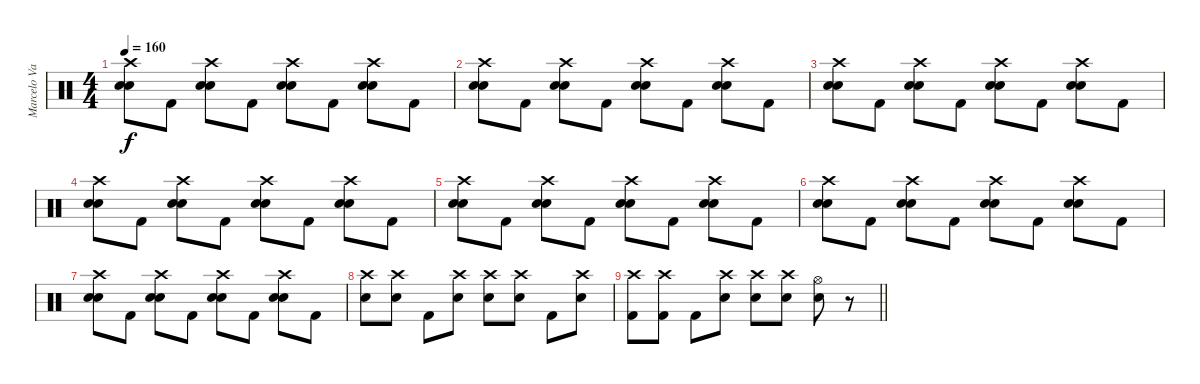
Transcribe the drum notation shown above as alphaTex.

\track ("Marcelo Valenzuela (Bateria)" "Marcelo Va") {instrument percussion}
\staff {score}
\articulation defaults
\ts (4 4)
\tempo 160
\clef neutral
\ks c
("Crash high (hit)" "Snare (hit) 2" "Electric Snare (hit)").8{dy f} "Kick (hit) 2".8 ("Crash high (hit)" "Snare (hit) 2" "Electric Snare (hit)").8 "Kick (hit) 2".8 ("Crash high (hit)" "Snare (hit) 2" "Electric Snare (hit)").8 "Kick (hit) 2".8 ("Crash high (hit)" "Snare (hit) 2" "Electric Snare (hit)").8 "Kick (hit) 2".8 |
("Crash high (hit)" "Snare (hit) 2" "Electric Snare (hit)").8 "Kick (hit) 2".8 ("Crash high (hit)" "Snare (hit) 2" "Electric Snare (hit)").8 "Kick (hit) 2".8 ("Crash high (hit)" "Snare (hit) 2" "Electric Snare (hit)").8 "Kick (hit) 2".8 ("Crash high (hit)" "Snare (hit) 2" "Electric Snare (hit)").8 "Kick (hit) 2".8 |
("Crash high (hit)" "Snare (hit) 2" "Electric Snare (hit)").8 "Kick (hit) 2".8 ("Crash high (hit)" "Snare (hit) 2" "Electric Snare (hit)").8 "Kick (hit) 2".8 ("Crash high (hit)" "Snare (hit) 2" "Electric Snare (hit)").8 "Kick (hit) 2".8 ("Crash high (hit)" "Snare (hit) 2" "Electric Snare (hit)").8 "Kick (hit) 2".8 |
("Crash high (hit)" "Snare (hit) 2" "Electric Snare (hit)").8 "Kick (hit) 2".8 ("Crash high (hit)" "Snare (hit) 2" "Electric Snare (hit)").8 "Kick (hit) 2".8 ("Crash high (hit)" "Snare (hit) 2" "Electric Snare (hit)").8 "Kick (hit) 2".8 ("Crash high (hit)" "Snare (hit) 2" "Electric Snare (hit)").8 "Kick (hit) 2".8 |
("Crash high (hit)" "Snare (hit) 2" "Electric Snare (hit)").8 "Kick (hit) 2".8 ("Crash high (hit)" "Snare (hit) 2" "Electric Snare (hit)").8 "Kick (hit) 2".8 ("Crash high (hit)" "Snare (hit) 2" "Electric Snare (hit)").8 "Kick (hit) 2".8 ("Crash high (hit)" "Snare (hit) 2" "Electric Snare (hit)").8 "Kick (hit) 2".8 |
("Crash high (hit)" "Snare (hit) 2" "Electric Snare (hit)").8 "Kick (hit) 2".8 ("Crash high (hit)" "Snare (hit) 2" "Electric Snare (hit)").8 "Kick (hit) 2".8 ("Crash high (hit)" "Snare (hit) 2" "Electric Snare (hit)").8 "Kick (hit) 2".8 ("Crash high (hit)" "Snare (hit) 2" "Electric Snare (hit)").8 "Kick (hit) 2".8 |
("Crash high (hit)" "Snare (hit) 2" "Electric Snare (hit)").8 "Kick (hit) 2".8 ("Crash high (hit)" "Snare (hit) 2" "Electric Snare (hit)").8 "Kick (hit) 2".8 ("Crash high (hit)" "Snare (hit) 2" "Electric Snare (hit)").8 "Kick (hit) 2".8 ("Crash high (hit)" "Snare (hit) 2" "Electric Snare (hit)").8 "Kick (hit) 2".8 |
("Crash high (hit)" "Electric Snare (hit)").8 ("Crash high (hit)" "Electric Snare (hit)").8 "Kick (hit) 2".8 ("Crash high (hit)" "Electric Snare (hit)").8 ("Crash high (hit)" "Electric Snare (hit)").8 ("Crash high (hit)" "Electric Snare (hit)").8 "Kick (hit) 2".8 ("Crash high (hit)" "Electric Snare (hit)").8 |
\barLineRight lightlight
("Crash high (hit)" "Kick (hit) 2").8 ("Crash high (hit)" "Kick (hit) 2").8 "Kick (hit) 2".8 ("Crash high (hit)" "Electric Snare (hit)").8 ("Crash high (hit)" "Electric Snare (hit)").8 ("Crash high (hit)" "Electric Snare (hit)").8 ("Hi-Hat (open)" "Electric Snare (hit)").8 r.8
